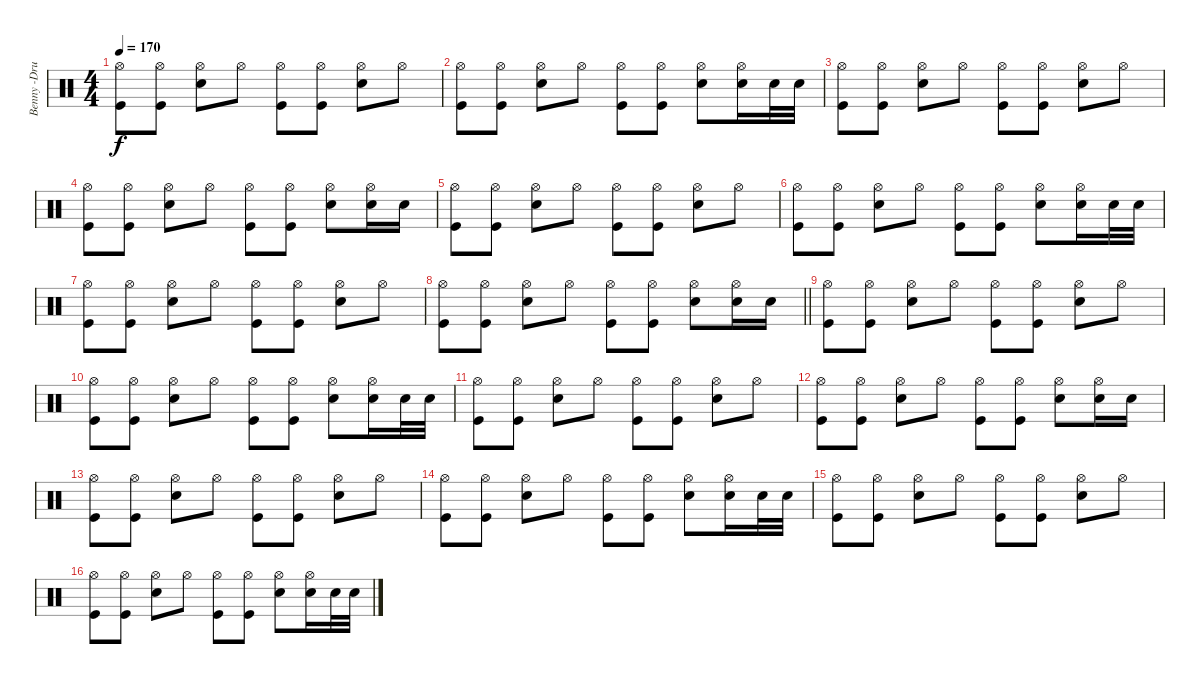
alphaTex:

\track ("Benny -Drums" "Benny -Dru") {instrument percussion}
\staff {score}
\articulation defaults
\ts (4 4)
\tempo 170
\clef neutral
\ks c
("Hi-Hat (open)" "Kick (hit)").8{dy f} ("Hi-Hat (open)" "Kick (hit)").8 ("Hi-Hat (open)" "Snare (hit) 2").8 "Hi-Hat (open)".8 ("Hi-Hat (open)" "Kick (hit)").8 ("Hi-Hat (open)" "Kick (hit)").8 ("Hi-Hat (open)" "Snare (hit) 2").8 "Hi-Hat (open)".8 |
("Hi-Hat (open)" "Kick (hit)").8 ("Hi-Hat (open)" "Kick (hit)").8 ("Hi-Hat (open)" "Snare (hit) 2").8 "Hi-Hat (open)".8 ("Hi-Hat (open)" "Kick (hit)").8 ("Hi-Hat (open)" "Kick (hit)").8 ("Hi-Hat (open)" "Snare (hit) 2").8 ("Hi-Hat (open)" "Snare (hit) 2").16 "Snare (hit) 2".32 "Snare (hit) 2".32 |
("Hi-Hat (open)" "Kick (hit)").8 ("Hi-Hat (open)" "Kick (hit)").8 ("Hi-Hat (open)" "Snare (hit) 2").8 "Hi-Hat (open)".8 ("Hi-Hat (open)" "Kick (hit)").8 ("Hi-Hat (open)" "Kick (hit)").8 ("Hi-Hat (open)" "Snare (hit) 2").8 "Hi-Hat (open)".8 |
("Hi-Hat (open)" "Kick (hit)").8 ("Hi-Hat (open)" "Kick (hit)").8 ("Hi-Hat (open)" "Snare (hit) 2").8 "Hi-Hat (open)".8 ("Hi-Hat (open)" "Kick (hit)").8 ("Hi-Hat (open)" "Kick (hit)").8 ("Hi-Hat (open)" "Snare (hit) 2").8 ("Hi-Hat (open)" "Snare (hit) 2").16 "Snare (hit) 2".16 |
("Hi-Hat (open)" "Kick (hit)").8 ("Hi-Hat (open)" "Kick (hit)").8 ("Hi-Hat (open)" "Snare (hit) 2").8 "Hi-Hat (open)".8 ("Hi-Hat (open)" "Kick (hit)").8 ("Hi-Hat (open)" "Kick (hit)").8 ("Hi-Hat (open)" "Snare (hit) 2").8 "Hi-Hat (open)".8 |
("Hi-Hat (open)" "Kick (hit)").8 ("Hi-Hat (open)" "Kick (hit)").8 ("Hi-Hat (open)" "Snare (hit) 2").8 "Hi-Hat (open)".8 ("Hi-Hat (open)" "Kick (hit)").8 ("Hi-Hat (open)" "Kick (hit)").8 ("Hi-Hat (open)" "Snare (hit) 2").8 ("Hi-Hat (open)" "Snare (hit) 2").16 "Snare (hit) 2".32 "Snare (hit) 2".32 |
("Hi-Hat (open)" "Kick (hit)").8 ("Hi-Hat (open)" "Kick (hit)").8 ("Hi-Hat (open)" "Snare (hit) 2").8 "Hi-Hat (open)".8 ("Hi-Hat (open)" "Kick (hit)").8 ("Hi-Hat (open)" "Kick (hit)").8 ("Hi-Hat (open)" "Snare (hit) 2").8 "Hi-Hat (open)".8 |
\barLineRight lightlight
("Hi-Hat (open)" "Kick (hit)").8 ("Hi-Hat (open)" "Kick (hit)").8 ("Hi-Hat (open)" "Snare (hit) 2").8 "Hi-Hat (open)".8 ("Hi-Hat (open)" "Kick (hit)").8 ("Hi-Hat (open)" "Kick (hit)").8 ("Hi-Hat (open)" "Snare (hit) 2").8 ("Hi-Hat (open)" "Snare (hit) 2").16 "Snare (hit) 2".16 |
("Hi-Hat (open)" "Kick (hit)").8 ("Hi-Hat (open)" "Kick (hit)").8 ("Hi-Hat (open)" "Snare (hit) 2").8 "Hi-Hat (open)".8 ("Hi-Hat (open)" "Kick (hit)").8 ("Hi-Hat (open)" "Kick (hit)").8 ("Hi-Hat (open)" "Snare (hit) 2").8 "Hi-Hat (open)".8 |
("Hi-Hat (open)" "Kick (hit)").8 ("Hi-Hat (open)" "Kick (hit)").8 ("Hi-Hat (open)" "Snare (hit) 2").8 "Hi-Hat (open)".8 ("Hi-Hat (open)" "Kick (hit)").8 ("Hi-Hat (open)" "Kick (hit)").8 ("Hi-Hat (open)" "Snare (hit) 2").8 ("Hi-Hat (open)" "Snare (hit) 2").16 "Snare (hit) 2".32 "Snare (hit) 2".32 |
("Hi-Hat (open)" "Kick (hit)").8 ("Hi-Hat (open)" "Kick (hit)").8 ("Hi-Hat (open)" "Snare (hit) 2").8 "Hi-Hat (open)".8 ("Hi-Hat (open)" "Kick (hit)").8 ("Hi-Hat (open)" "Kick (hit)").8 ("Hi-Hat (open)" "Snare (hit) 2").8 "Hi-Hat (open)".8 |
("Hi-Hat (open)" "Kick (hit)").8 ("Hi-Hat (open)" "Kick (hit)").8 ("Hi-Hat (open)" "Snare (hit) 2").8 "Hi-Hat (open)".8 ("Hi-Hat (open)" "Kick (hit)").8 ("Hi-Hat (open)" "Kick (hit)").8 ("Hi-Hat (open)" "Snare (hit) 2").8 ("Hi-Hat (open)" "Snare (hit) 2").16 "Snare (hit) 2".16 |
("Hi-Hat (open)" "Kick (hit)").8 ("Hi-Hat (open)" "Kick (hit)").8 ("Hi-Hat (open)" "Snare (hit) 2").8 "Hi-Hat (open)".8 ("Hi-Hat (open)" "Kick (hit)").8 ("Hi-Hat (open)" "Kick (hit)").8 ("Hi-Hat (open)" "Snare (hit) 2").8 "Hi-Hat (open)".8 |
("Hi-Hat (open)" "Kick (hit)").8 ("Hi-Hat (open)" "Kick (hit)").8 ("Hi-Hat (open)" "Snare (hit) 2").8 "Hi-Hat (open)".8 ("Hi-Hat (open)" "Kick (hit)").8 ("Hi-Hat (open)" "Kick (hit)").8 ("Hi-Hat (open)" "Snare (hit) 2").8 ("Hi-Hat (open)" "Snare (hit) 2").16 "Snare (hit) 2".32 "Snare (hit) 2".32 |
("Hi-Hat (open)" "Kick (hit)").8 ("Hi-Hat (open)" "Kick (hit)").8 ("Hi-Hat (open)" "Snare (hit) 2").8 "Hi-Hat (open)".8 ("Hi-Hat (open)" "Kick (hit)").8 ("Hi-Hat (open)" "Kick (hit)").8 ("Hi-Hat (open)" "Snare (hit) 2").8 "Hi-Hat (open)".8 |
("Hi-Hat (open)" "Kick (hit)").8 ("Hi-Hat (open)" "Kick (hit)").8 ("Hi-Hat (open)" "Snare (hit) 2").8 "Hi-Hat (open)".8 ("Hi-Hat (open)" "Kick (hit)").8 ("Hi-Hat (open)" "Kick (hit)").8 ("Hi-Hat (open)" "Snare (hit) 2").8 ("Hi-Hat (open)" "Snare (hit) 2").16 "Snare (hit) 2".32 "Snare (hit) 2".32
